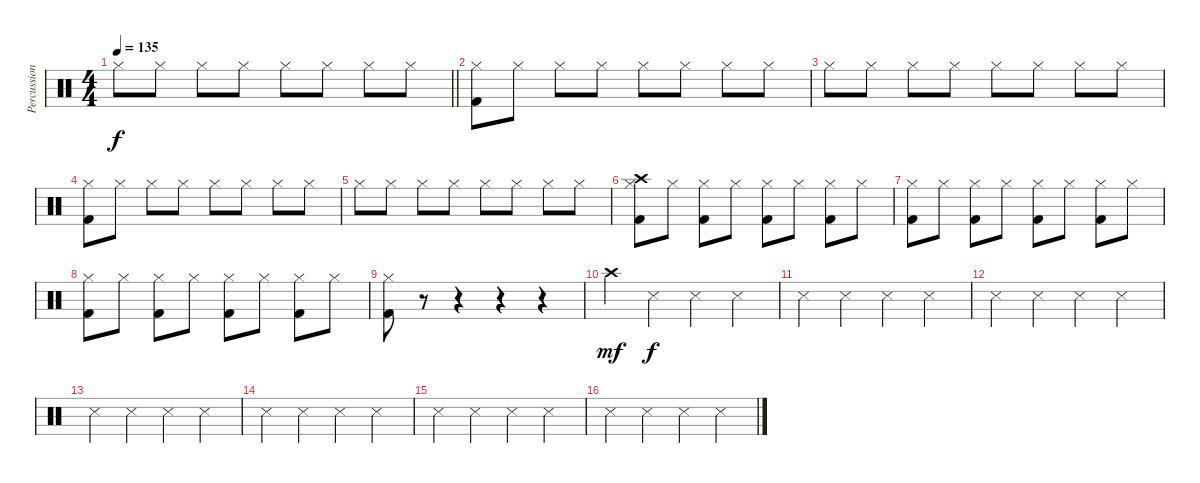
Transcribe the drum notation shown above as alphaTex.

\track ("Percussion" "Percussion") {instrument percussion}
\staff {score}
\articulation defaults
\ts (4 4)
\tempo 135
\clef neutral
\barLineRight lightlight
\ks c "Hi-Hat (closed)".8{dy f} "Hi-Hat (closed)".8 "Hi-Hat (closed)".8 "Hi-Hat (closed)".8 "Hi-Hat (closed)".8 "Hi-Hat (closed)".8 "Hi-Hat (closed)".8 "Hi-Hat (closed)".8
|
("Kick (hit) 2" "Hi-Hat (closed)").8 "Hi-Hat (closed)".8 "Hi-Hat (closed)".8 "Hi-Hat (closed)".8 "Hi-Hat (closed)".8 "Hi-Hat (closed)".8 "Hi-Hat (closed)".8 "Hi-Hat (closed)".8 |
"Hi-Hat (closed)".8 "Hi-Hat (closed)".8 "Hi-Hat (closed)".8 "Hi-Hat (closed)".8 "Hi-Hat (closed)".8 "Hi-Hat (closed)".8 "Hi-Hat (closed)".8 "Hi-Hat (closed)".8 |
("Kick (hit) 2" "Hi-Hat (closed)").8 "Hi-Hat (closed)".8 "Hi-Hat (closed)".8 "Hi-Hat (closed)".8 "Hi-Hat (closed)".8 "Hi-Hat (closed)".8 "Hi-Hat (closed)".8 "Hi-Hat (closed)".8 |
"Hi-Hat (closed)".8 "Hi-Hat (closed)".8 "Hi-Hat (closed)".8 "Hi-Hat (closed)".8 "Hi-Hat (closed)".8 "Hi-Hat (closed)".8 "Hi-Hat (closed)".8 "Hi-Hat (closed)".8 |
("Kick (hit) 2" "Hi-Hat (closed)" "Crash high (hit)").8 "Hi-Hat (closed)".8 ("Kick (hit) 2" "Hi-Hat (closed)").8 "Hi-Hat (closed)".8 ("Kick (hit) 2" "Hi-Hat (closed)").8 "Hi-Hat (closed)".8 ("Kick (hit) 2" "Hi-Hat (closed)").8 "Hi-Hat (closed)".8 |
("Kick (hit) 2" "Hi-Hat (closed)").8 "Hi-Hat (closed)".8 ("Kick (hit) 2" "Hi-Hat (closed)").8 "Hi-Hat (closed)".8 ("Kick (hit) 2" "Hi-Hat (closed)").8 "Hi-Hat (closed)".8 ("Kick (hit) 2" "Hi-Hat (closed)").8 "Hi-Hat (closed)".8 |
("Kick (hit) 2" "Hi-Hat (closed)").8 "Hi-Hat (closed)".8 ("Kick (hit) 2" "Hi-Hat (closed)").8 "Hi-Hat (closed)".8 ("Kick (hit) 2" "Hi-Hat (closed)").8 "Hi-Hat (closed)".8 ("Kick (hit) 2" "Hi-Hat (closed)").8 "Hi-Hat (closed)".8 |
("Kick (hit) 2" "Hi-Hat (closed)").8 r.8 r.4 r.4 r.4 |
"Crash high (hit)".4{dy mf} "Snare (side stick) 3".4{dy f} "Snare (side stick) 3".4 "Snare (side stick) 3".4 |
"Snare (side stick) 3".4 "Snare (side stick) 3".4 "Snare (side stick) 3".4 "Snare (side stick) 3".4 |
"Snare (side stick) 3".4 "Snare (side stick) 3".4 "Snare (side stick) 3".4 "Snare (side stick) 3".4 |
"Snare (side stick) 3".4 "Snare (side stick) 3".4 "Snare (side stick) 3".4 "Snare (side stick) 3".4 |
"Snare (side stick) 3".4 "Snare (side stick) 3".4 "Snare (side stick) 3".4 "Snare (side stick) 3".4 |
"Snare (side stick) 3".4 "Snare (side stick) 3".4 "Snare (side stick) 3".4 "Snare (side stick) 3".4 |
"Snare (side stick) 3".4 "Snare (side stick) 3".4 "Snare (side stick) 3".4 "Snare (side stick) 3".4
